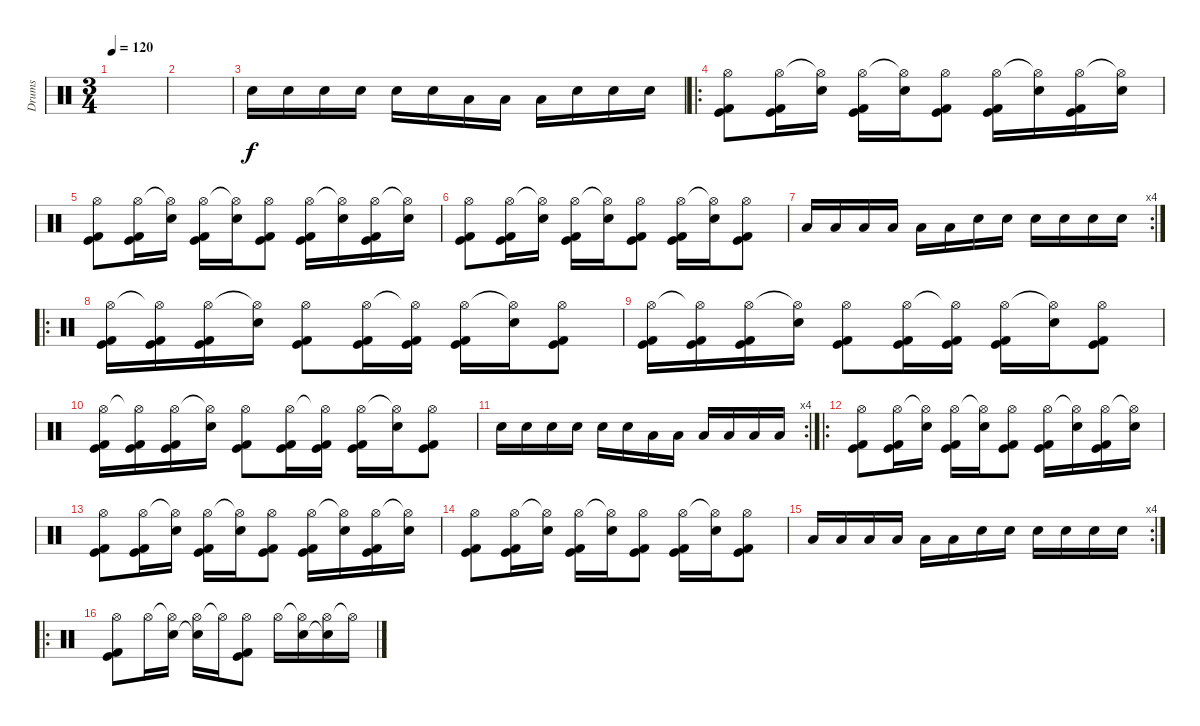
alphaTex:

\track ("Drums" "Drums") {instrument percussion}
\staff {score}
\articulation defaults
\ts (3 4)
\tempo 120
\clef neutral
\ks c
|
|
"Snare (hit) 2".16 "Snare (hit) 2".16 "Snare (hit) 2".16 "Snare (hit) 2".16 "Snare (hit) 2".16 "Snare (hit) 2".16 "Low Tom (hit)".16 "Low Tom (hit)".16 "Low Tom (hit)".16 "Snare (hit) 2".16 "Snare (hit) 2".16 "Snare (hit) 2".16 |
\ro
("Hi-Hat (open)" "Kick (hit) 2" "Kick (hit)").8 ("Hi-Hat (open)" "Kick (hit) 2" "Kick (hit)").16 ("Hi-Hat (open)"{t} "Snare (hit) 2").16 ("Hi-Hat (open)" "Kick (hit) 2" "Kick (hit)").16 ("Hi-Hat (open)"{t} "Snare (hit) 2").16 ("Hi-Hat (open)" "Kick (hit) 2" "Kick (hit)").8 ("Hi-Hat (open)" "Kick (hit) 2" "Kick (hit)").16 ("Hi-Hat (open)"{t} "Snare (hit) 2").16 ("Hi-Hat (open)" "Kick (hit) 2" "Kick (hit)").16 ("Hi-Hat (open)"{t} "Snare (hit) 2").16 |
("Hi-Hat (open)" "Kick (hit) 2" "Kick (hit)").8 ("Hi-Hat (open)" "Kick (hit) 2" "Kick (hit)").16 ("Hi-Hat (open)"{t} "Snare (hit) 2").16 ("Hi-Hat (open)" "Kick (hit) 2" "Kick (hit)").16 ("Hi-Hat (open)"{t} "Snare (hit) 2").16 ("Hi-Hat (open)" "Kick (hit) 2" "Kick (hit)").8 ("Hi-Hat (open)" "Kick (hit) 2" "Kick (hit)").16 ("Hi-Hat (open)"{t} "Snare (hit) 2").16 ("Hi-Hat (open)" "Kick (hit) 2" "Kick (hit)").16 ("Hi-Hat (open)"{t} "Snare (hit) 2").16 |
("Hi-Hat (open)" "Kick (hit) 2" "Kick (hit)").8 ("Hi-Hat (open)" "Kick (hit) 2" "Kick (hit)").16 ("Hi-Hat (open)"{t} "Snare (hit) 2").16 ("Hi-Hat (open)" "Kick (hit) 2" "Kick (hit)").16 ("Hi-Hat (open)"{t} "Snare (hit) 2").16 ("Hi-Hat (open)" "Kick (hit) 2" "Kick (hit)").8 ("Hi-Hat (open)" "Kick (hit) 2" "Kick (hit)").16 ("Hi-Hat (open)"{t} "Snare (hit) 2").16 ("Hi-Hat (open)" "Kick (hit) 2" "Kick (hit)").8 |
\rc 4 "Low Tom (hit)".16 "Low Tom (hit)".16 "Low Tom (hit)".16 "Low Tom (hit)".16 "Low Tom (hit)".16 "Low Tom (hit)".16 "Snare (hit) 2".16 "Snare (hit) 2".16 "Snare (hit) 2".16 "Snare (hit) 2".16 "Snare (hit) 2".16 "Snare (hit) 2".16
|
\ro
("Hi-Hat (open)" "Kick (hit) 2" "Kick (hit)").16 ("Hi-Hat (open)"{t} "Kick (hit) 2" "Kick (hit)").16 ("Hi-Hat (open)" "Kick (hit) 2" "Kick (hit)").16 ("Hi-Hat (open)"{t} "Snare (hit) 2").16 ("Hi-Hat (open)" "Kick (hit) 2" "Kick (hit)").8 ("Hi-Hat (open)" "Kick (hit) 2" "Kick (hit)").16 ("Hi-Hat (open)"{t} "Kick (hit) 2" "Kick (hit)").16 ("Hi-Hat (open)" "Kick (hit) 2" "Kick (hit)").16 ("Hi-Hat (open)"{t} "Snare (hit) 2").16 ("Hi-Hat (open)" "Kick (hit) 2" "Kick (hit)").8 |
("Hi-Hat (open)" "Kick (hit) 2" "Kick (hit)").16 ("Hi-Hat (open)"{t} "Kick (hit) 2" "Kick (hit)").16 ("Hi-Hat (open)" "Kick (hit) 2" "Kick (hit)").16 ("Hi-Hat (open)"{t} "Snare (hit) 2").16 ("Hi-Hat (open)" "Kick (hit) 2" "Kick (hit)").8 ("Hi-Hat (open)" "Kick (hit) 2" "Kick (hit)").16 ("Hi-Hat (open)"{t} "Kick (hit) 2" "Kick (hit)").16 ("Hi-Hat (open)" "Kick (hit) 2" "Kick (hit)").16 ("Hi-Hat (open)"{t} "Snare (hit) 2").16 ("Hi-Hat (open)" "Kick (hit) 2" "Kick (hit)").8 |
("Hi-Hat (open)" "Kick (hit) 2" "Kick (hit)").16 ("Hi-Hat (open)"{t} "Kick (hit) 2" "Kick (hit)").16 ("Hi-Hat (open)" "Kick (hit) 2" "Kick (hit)").16 ("Hi-Hat (open)"{t} "Snare (hit) 2").16 ("Hi-Hat (open)" "Kick (hit) 2" "Kick (hit)").8 ("Hi-Hat (open)" "Kick (hit) 2" "Kick (hit)").16 ("Hi-Hat (open)"{t} "Kick (hit) 2" "Kick (hit)").16 ("Hi-Hat (open)" "Kick (hit) 2" "Kick (hit)").16 ("Hi-Hat (open)"{t} "Snare (hit) 2").16 ("Hi-Hat (open)" "Kick (hit) 2" "Kick (hit)").8 |
\rc 4 "Snare (hit) 2".16 "Snare (hit) 2".16 "Snare (hit) 2".16 "Snare (hit) 2".16 "Snare (hit) 2".16 "Snare (hit) 2".16 "Low Tom (hit)".16 "Low Tom (hit)".16 "Low Tom (hit)".16 "Low Tom (hit)".16 "Low Tom (hit)".16 "Low Tom (hit)".16
|
\ro
("Hi-Hat (open)" "Kick (hit) 2" "Kick (hit)").8 ("Hi-Hat (open)" "Kick (hit) 2" "Kick (hit)").16 ("Hi-Hat (open)"{t} "Snare (hit) 2").16 ("Hi-Hat (open)" "Kick (hit) 2" "Kick (hit)").16 ("Hi-Hat (open)"{t} "Snare (hit) 2").16 ("Hi-Hat (open)" "Kick (hit) 2" "Kick (hit)").8 ("Hi-Hat (open)" "Kick (hit) 2" "Kick (hit)").16 ("Hi-Hat (open)"{t} "Snare (hit) 2").16 ("Hi-Hat (open)" "Kick (hit) 2" "Kick (hit)").16 ("Hi-Hat (open)"{t} "Snare (hit) 2").16 |
("Hi-Hat (open)" "Kick (hit) 2" "Kick (hit)").8 ("Hi-Hat (open)" "Kick (hit) 2" "Kick (hit)").16 ("Hi-Hat (open)"{t} "Snare (hit) 2").16 ("Hi-Hat (open)" "Kick (hit) 2" "Kick (hit)").16 ("Hi-Hat (open)"{t} "Snare (hit) 2").16 ("Hi-Hat (open)" "Kick (hit) 2" "Kick (hit)").8 ("Hi-Hat (open)" "Kick (hit) 2" "Kick (hit)").16 ("Hi-Hat (open)"{t} "Snare (hit) 2").16 ("Hi-Hat (open)" "Kick (hit) 2" "Kick (hit)").16 ("Hi-Hat (open)"{t} "Snare (hit) 2").16 |
("Hi-Hat (open)" "Kick (hit) 2" "Kick (hit)").8 ("Hi-Hat (open)" "Kick (hit) 2" "Kick (hit)").16 ("Hi-Hat (open)"{t} "Snare (hit) 2").16 ("Hi-Hat (open)" "Kick (hit) 2" "Kick (hit)").16 ("Hi-Hat (open)"{t} "Snare (hit) 2").16 ("Hi-Hat (open)" "Kick (hit) 2" "Kick (hit)").8 ("Hi-Hat (open)" "Kick (hit) 2" "Kick (hit)").16 ("Hi-Hat (open)"{t} "Snare (hit) 2").16 ("Hi-Hat (open)" "Kick (hit) 2" "Kick (hit)").8 |
\rc 4 "Low Tom (hit)".16 "Low Tom (hit)".16 "Low Tom (hit)".16 "Low Tom (hit)".16 "Low Tom (hit)".16 "Low Tom (hit)".16 "Snare (hit) 2".16 "Snare (hit) 2".16 "Snare (hit) 2".16 "Snare (hit) 2".16 "Snare (hit) 2".16 "Snare (hit) 2".16
|
\ro
("Hi-Hat (open)" "Kick (hit) 2" "Kick (hit)").8 "Hi-Hat (open)".16 ("Hi-Hat (open)"{t} "Snare (hit) 2").16 ("Hi-Hat (open)" "Snare (hit) 2"{t}).16 "Hi-Hat (open)"{t}.16 ("Hi-Hat (open)" "Kick (hit) 2" "Kick (hit)").8 "Hi-Hat (open)".16 ("Hi-Hat (open)"{t} "Snare (hit) 2").16 ("Hi-Hat (open)" "Snare (hit) 2"{t}).16 "Hi-Hat (open)"{t}.16
